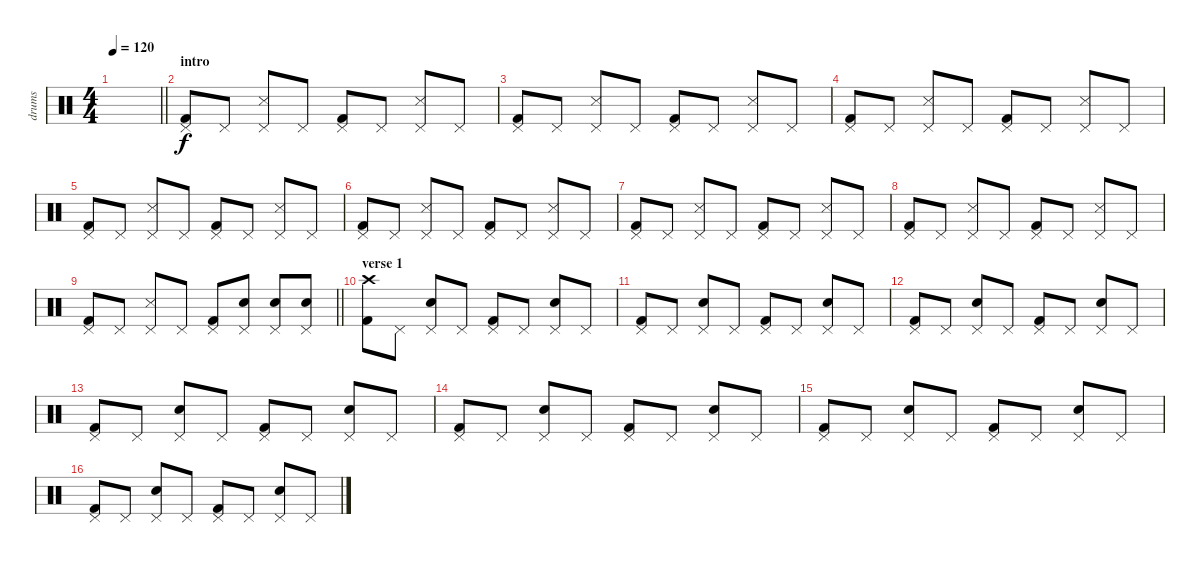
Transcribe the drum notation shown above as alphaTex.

\track ("drums" "drums") {instrument percussion}
\staff {score}
\articulation defaults
\ts (4 4)
\tempo 120
\clef neutral
\barLineRight lightlight
\ks c
|
\section ("" "intro")
("Kick (hit) 2" "Pedal Hi-Hat (hit)").8 "Pedal Hi-Hat (hit)".8 ("Snare (side stick) 3" "Pedal Hi-Hat (hit)").8 "Pedal Hi-Hat (hit)".8 ("Kick (hit) 2" "Pedal Hi-Hat (hit)").8 "Pedal Hi-Hat (hit)".8 ("Snare (side stick) 3" "Pedal Hi-Hat (hit)").8 "Pedal Hi-Hat (hit)".8 |
("Kick (hit) 2" "Pedal Hi-Hat (hit)").8 "Pedal Hi-Hat (hit)".8 ("Snare (side stick) 3" "Pedal Hi-Hat (hit)").8 "Pedal Hi-Hat (hit)".8 ("Kick (hit) 2" "Pedal Hi-Hat (hit)").8 "Pedal Hi-Hat (hit)".8 ("Snare (side stick) 3" "Pedal Hi-Hat (hit)").8 "Pedal Hi-Hat (hit)".8 |
("Kick (hit) 2" "Pedal Hi-Hat (hit)").8 "Pedal Hi-Hat (hit)".8 ("Snare (side stick) 3" "Pedal Hi-Hat (hit)").8 "Pedal Hi-Hat (hit)".8 ("Kick (hit) 2" "Pedal Hi-Hat (hit)").8 "Pedal Hi-Hat (hit)".8 ("Snare (side stick) 3" "Pedal Hi-Hat (hit)").8 "Pedal Hi-Hat (hit)".8 |
("Kick (hit) 2" "Pedal Hi-Hat (hit)").8 "Pedal Hi-Hat (hit)".8 ("Snare (side stick) 3" "Pedal Hi-Hat (hit)").8 "Pedal Hi-Hat (hit)".8 ("Kick (hit) 2" "Pedal Hi-Hat (hit)").8 "Pedal Hi-Hat (hit)".8 ("Snare (side stick) 3" "Pedal Hi-Hat (hit)").8 "Pedal Hi-Hat (hit)".8 |
("Kick (hit) 2" "Pedal Hi-Hat (hit)").8 "Pedal Hi-Hat (hit)".8 ("Snare (side stick) 3" "Pedal Hi-Hat (hit)").8 "Pedal Hi-Hat (hit)".8 ("Kick (hit) 2" "Pedal Hi-Hat (hit)").8 "Pedal Hi-Hat (hit)".8 ("Snare (side stick) 3" "Pedal Hi-Hat (hit)").8 "Pedal Hi-Hat (hit)".8 |
("Kick (hit) 2" "Pedal Hi-Hat (hit)").8 "Pedal Hi-Hat (hit)".8 ("Snare (side stick) 3" "Pedal Hi-Hat (hit)").8 "Pedal Hi-Hat (hit)".8 ("Kick (hit) 2" "Pedal Hi-Hat (hit)").8 "Pedal Hi-Hat (hit)".8 ("Snare (side stick) 3" "Pedal Hi-Hat (hit)").8 "Pedal Hi-Hat (hit)".8 |
("Kick (hit) 2" "Pedal Hi-Hat (hit)").8 "Pedal Hi-Hat (hit)".8 ("Snare (side stick) 3" "Pedal Hi-Hat (hit)").8 "Pedal Hi-Hat (hit)".8 ("Kick (hit) 2" "Pedal Hi-Hat (hit)").8 "Pedal Hi-Hat (hit)".8 ("Snare (side stick) 3" "Pedal Hi-Hat (hit)").8 "Pedal Hi-Hat (hit)".8 |
\barLineRight lightlight
("Kick (hit) 2" "Pedal Hi-Hat (hit)").8 "Pedal Hi-Hat (hit)".8 ("Snare (side stick) 3" "Pedal Hi-Hat (hit)").8 "Pedal Hi-Hat (hit)".8 ("Kick (hit) 2" "Pedal Hi-Hat (hit)").8 ("Electric Snare (hit)" "Pedal Hi-Hat (hit)").8{volume 16} ("Electric Snare (hit)" "Pedal Hi-Hat (hit)").8 ("Electric Snare (hit)" "Pedal Hi-Hat (hit)").8 |
\section ("" "verse 1")
("Kick (hit) 2" "Crash high (hit)").8 "Pedal Hi-Hat (hit)".8 ("Electric Snare (hit)" "Pedal Hi-Hat (hit)").8 "Pedal Hi-Hat (hit)".8 ("Kick (hit) 2" "Pedal Hi-Hat (hit)").8 "Pedal Hi-Hat (hit)".8 ("Electric Snare (hit)" "Pedal Hi-Hat (hit)").8 "Pedal Hi-Hat (hit)".8 |
("Kick (hit) 2" "Pedal Hi-Hat (hit)").8 "Pedal Hi-Hat (hit)".8 ("Electric Snare (hit)" "Pedal Hi-Hat (hit)").8 "Pedal Hi-Hat (hit)".8 ("Kick (hit) 2" "Pedal Hi-Hat (hit)").8 "Pedal Hi-Hat (hit)".8 ("Electric Snare (hit)" "Pedal Hi-Hat (hit)").8 "Pedal Hi-Hat (hit)".8 |
("Kick (hit) 2" "Pedal Hi-Hat (hit)").8 "Pedal Hi-Hat (hit)".8 ("Electric Snare (hit)" "Pedal Hi-Hat (hit)").8 "Pedal Hi-Hat (hit)".8 ("Kick (hit) 2" "Pedal Hi-Hat (hit)").8 "Pedal Hi-Hat (hit)".8 ("Electric Snare (hit)" "Pedal Hi-Hat (hit)").8 "Pedal Hi-Hat (hit)".8 |
("Kick (hit) 2" "Pedal Hi-Hat (hit)").8 "Pedal Hi-Hat (hit)".8 ("Electric Snare (hit)" "Pedal Hi-Hat (hit)").8 "Pedal Hi-Hat (hit)".8 ("Kick (hit) 2" "Pedal Hi-Hat (hit)").8 "Pedal Hi-Hat (hit)".8 ("Electric Snare (hit)" "Pedal Hi-Hat (hit)").8 "Pedal Hi-Hat (hit)".8 |
("Kick (hit) 2" "Pedal Hi-Hat (hit)").8 "Pedal Hi-Hat (hit)".8 ("Electric Snare (hit)" "Pedal Hi-Hat (hit)").8 "Pedal Hi-Hat (hit)".8 ("Kick (hit) 2" "Pedal Hi-Hat (hit)").8 "Pedal Hi-Hat (hit)".8 ("Electric Snare (hit)" "Pedal Hi-Hat (hit)").8 "Pedal Hi-Hat (hit)".8 |
("Kick (hit) 2" "Pedal Hi-Hat (hit)").8 "Pedal Hi-Hat (hit)".8 ("Electric Snare (hit)" "Pedal Hi-Hat (hit)").8 "Pedal Hi-Hat (hit)".8 ("Kick (hit) 2" "Pedal Hi-Hat (hit)").8 "Pedal Hi-Hat (hit)".8 ("Electric Snare (hit)" "Pedal Hi-Hat (hit)").8 "Pedal Hi-Hat (hit)".8 |
("Kick (hit) 2" "Pedal Hi-Hat (hit)").8 "Pedal Hi-Hat (hit)".8 ("Electric Snare (hit)" "Pedal Hi-Hat (hit)").8 "Pedal Hi-Hat (hit)".8 ("Kick (hit) 2" "Pedal Hi-Hat (hit)").8 "Pedal Hi-Hat (hit)".8 ("Electric Snare (hit)" "Pedal Hi-Hat (hit)").8 "Pedal Hi-Hat (hit)".8
